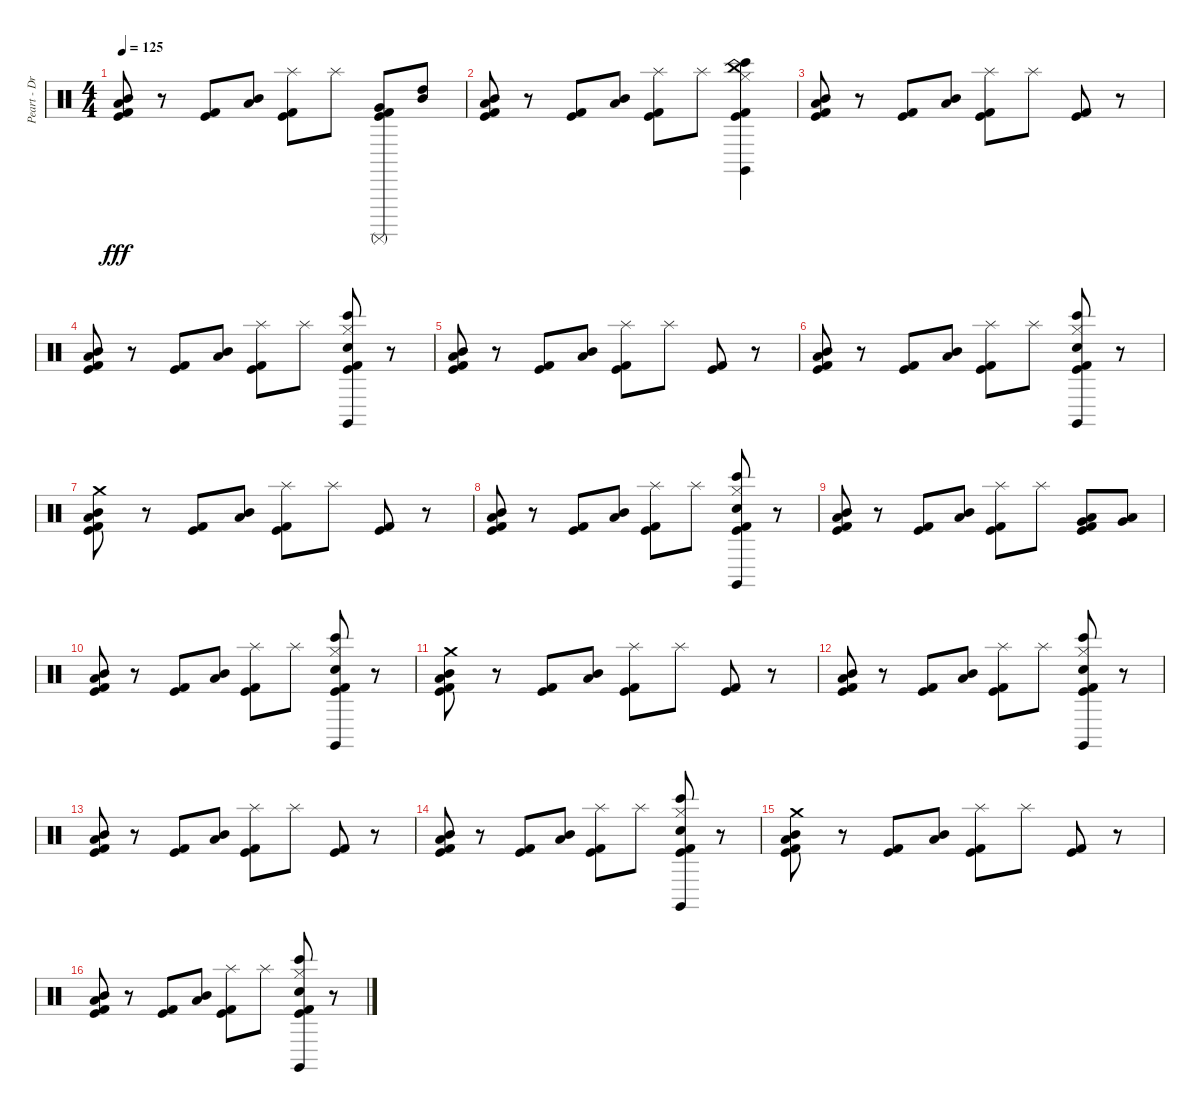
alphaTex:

\track ("Peart - Drums" "Peart - Dr") {instrument percussion}
\staff {score}
\articulation defaults
\ts (4 4)
\tempo 125
\clef neutral
\ks c
("Kick (hit) 2" "Low Tom (hit)" "Kick (hit)" "Mid Tom (hit)").8{dy fff} r.8 ("Kick (hit) 2" "Kick (hit)").8 ("Low Tom (hit)" "Mid Tom (hit)").8 ("Kick (hit) 2" "Splash (hit)" "Kick (hit)").8 "Splash (hit)".8 ("Kick (hit) 2" "Very Low Tom (hit)" "Surdo (mute)" "Kick (hit)").8 ("Mid Tom (hit)" "High Tom (hit)").8 |
("Kick (hit) 2" "Low Tom (hit)" "Kick (hit)" "Mid Tom (hit)").8 r.8 ("Kick (hit) 2" "Kick (hit)").8 ("Low Tom (hit)" "Mid Tom (hit)").8 ("Kick (hit) 2" "Splash (hit)" "Kick (hit)").8 "Splash (hit)".8 ("Kick (hit) 2" "Claves (hit)" "Bongo High (hit)" "Hi-Hat (closed)" "Kick (hit)" "China (hit)").4 |
("Kick (hit)" "Low Tom (hit)" "Kick (hit) 2" "Mid Tom (hit)").8 r.8 ("Kick (hit) 2" "Kick (hit)").8 ("Low Tom (hit)" "Mid Tom (hit)").8 ("Kick (hit) 2" "Splash (hit)" "Kick (hit)").8 "Splash (hit)".8 ("Kick (hit) 2" "Kick (hit)").8 r.8 |
("Kick (hit) 2" "Low Tom (hit)" "Kick (hit)" "Mid Tom (hit)").8 r.8 ("Kick (hit) 2" "Kick (hit)").8 ("Low Tom (hit)" "Mid Tom (hit)").8 ("Kick (hit) 2" "Splash (hit)" "Kick (hit)").8 "Splash (hit)".8 ("Kick (hit) 2" "Kick (hit)" "Bongo High (hit)" "Claves (hit)" "Hi-Hat (closed)" "Hand Clap (hit)").8 r.8 |
("Kick (hit)" "Low Tom (hit)" "Kick (hit) 2" "Mid Tom (hit)").8 r.8 ("Kick (hit) 2" "Kick (hit)").8 ("Low Tom (hit)" "Mid Tom (hit)").8 ("Kick (hit) 2" "Splash (hit)" "Kick (hit)").8 "Splash (hit)".8 ("Kick (hit) 2" "Kick (hit)").8 r.8 |
("Kick (hit) 2" "Low Tom (hit)" "Kick (hit)" "Mid Tom (hit)").8 r.8 ("Kick (hit) 2" "Kick (hit)").8 ("Low Tom (hit)" "Mid Tom (hit)").8 ("Kick (hit) 2" "Splash (hit)" "Kick (hit)").8 "Splash (hit)".8 ("Kick (hit) 2" "Kick (hit)" "Bongo High (hit)" "Claves (hit)" "Hi-Hat (closed)" "Hand Clap (hit)").8 r.8 |
("Kick (hit) 2" "Low Tom (hit)" "Kick (hit)" "Crash medium (hit)" "Mid Tom (hit)").8 r.8 ("Kick (hit) 2" "Kick (hit)").8 ("Low Tom (hit)" "Mid Tom (hit)").8 ("Kick (hit) 2" "Splash (hit)" "Kick (hit)").8 "Splash (hit)".8 ("Kick (hit) 2" "Kick (hit)").8 r.8 |
("Kick (hit) 2" "Low Tom (hit)" "Kick (hit)" "Mid Tom (hit)").8 r.8 ("Kick (hit) 2" "Kick (hit)").8 ("Low Tom (hit)" "Mid Tom (hit)").8 ("Kick (hit) 2" "Splash (hit)" "Kick (hit)").8 "Splash (hit)".8 ("Kick (hit) 2" "Kick (hit)" "Bongo High (hit)" "Claves (hit)" "Hi-Hat (closed)" "Hand Clap (hit)").8 r.8 |
("Kick (hit)" "Low Tom (hit)" "Kick (hit) 2" "Mid Tom (hit)").8 r.8 ("Kick (hit) 2" "Kick (hit)").8 ("Low Tom (hit)" "Mid Tom (hit)").8 ("Kick (hit) 2" "Splash (hit)" "Kick (hit)").8 "Splash (hit)".8 ("Kick (hit) 2" "Kick (hit)" "Very Low Tom (hit)" "Low Tom (hit)").8 ("Very Low Tom (hit)" "Low Tom (hit)").8 |
("Kick (hit) 2" "Low Tom (hit)" "Kick (hit)" "Mid Tom (hit)").8 r.8 ("Kick (hit) 2" "Kick (hit)").8 ("Low Tom (hit)" "Mid Tom (hit)").8 ("Kick (hit) 2" "Splash (hit)" "Kick (hit)").8 "Splash (hit)".8 ("Kick (hit) 2" "Kick (hit)" "Bongo High (hit)" "Claves (hit)" "Hi-Hat (closed)" "Hand Clap (hit)").8 r.8 |
("Kick (hit) 2" "Low Tom (hit)" "Kick (hit)" "Crash medium (hit)" "Mid Tom (hit)").8 r.8 ("Kick (hit) 2" "Kick (hit)").8 ("Low Tom (hit)" "Mid Tom (hit)").8 ("Kick (hit) 2" "Splash (hit)" "Kick (hit)").8 "Splash (hit)".8 ("Kick (hit) 2" "Kick (hit)").8 r.8 |
("Kick (hit) 2" "Low Tom (hit)" "Kick (hit)" "Mid Tom (hit)").8 r.8 ("Kick (hit) 2" "Kick (hit)").8 ("Low Tom (hit)" "Mid Tom (hit)").8 ("Kick (hit) 2" "Splash (hit)" "Kick (hit)").8 "Splash (hit)".8 ("Kick (hit) 2" "Kick (hit)" "Bongo High (hit)" "Claves (hit)" "Hi-Hat (closed)" "Hand Clap (hit)").8 r.8 |
("Kick (hit)" "Low Tom (hit)" "Kick (hit) 2" "Mid Tom (hit)").8 r.8 ("Kick (hit) 2" "Kick (hit)").8 ("Low Tom (hit)" "Mid Tom (hit)").8 ("Kick (hit) 2" "Splash (hit)" "Kick (hit)").8 "Splash (hit)".8 ("Kick (hit) 2" "Kick (hit)").8 r.8 |
("Kick (hit) 2" "Low Tom (hit)" "Kick (hit)" "Mid Tom (hit)").8 r.8 ("Kick (hit) 2" "Kick (hit)").8 ("Low Tom (hit)" "Mid Tom (hit)").8 ("Kick (hit) 2" "Splash (hit)" "Kick (hit)").8 "Splash (hit)".8 ("Kick (hit) 2" "Kick (hit)" "Bongo High (hit)" "Claves (hit)" "Hi-Hat (closed)" "Hand Clap (hit)").8 r.8 |
("Kick (hit)" "Low Tom (hit)" "Kick (hit) 2" "Crash medium (hit)" "Mid Tom (hit)").8 r.8 ("Kick (hit) 2" "Kick (hit)").8 ("Low Tom (hit)" "Mid Tom (hit)").8 ("Kick (hit) 2" "Splash (hit)" "Kick (hit)").8 "Splash (hit)".8 ("Kick (hit) 2" "Kick (hit)").8 r.8 |
("Kick (hit) 2" "Low Tom (hit)" "Kick (hit)" "Mid Tom (hit)").8 r.8 ("Kick (hit) 2" "Kick (hit)").8 ("Low Tom (hit)" "Mid Tom (hit)").8 ("Kick (hit) 2" "Splash (hit)" "Kick (hit)").8 "Splash (hit)".8 ("Kick (hit) 2" "Kick (hit)" "Bongo High (hit)" "Claves (hit)" "Hi-Hat (closed)" "Hand Clap (hit)").8 r.8
